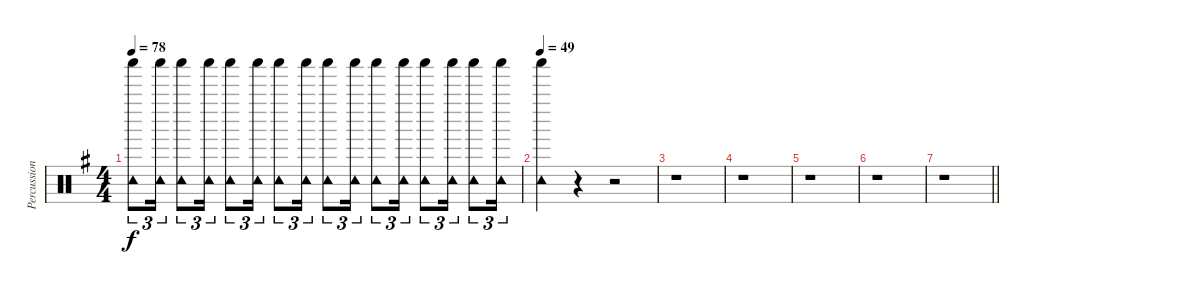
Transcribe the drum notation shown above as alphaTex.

\track ("Percussion" "Percussion") {instrument percussion}
\staff {score}
\articulation defaults
\ts (4 4)
\tempo 78
\clef neutral
\ks g
("Shaker (hit)" "Tambourine (hit)").8{tu (3 2) dy f} ("Shaker (hit)" "Tambourine (hit)").16{tu (3 2)} ("Shaker (hit)" "Tambourine (hit)").8{tu (3 2)} ("Shaker (hit)" "Tambourine (hit)").16{tu (3 2)} ("Shaker (hit)" "Tambourine (hit)").8{tu (3 2)} ("Shaker (hit)" "Tambourine (hit)").16{tu (3 2)} ("Shaker (hit)" "Tambourine (hit)").8{tu (3 2)} ("Shaker (hit)" "Tambourine (hit)").16{tu (3 2)} ("Shaker (hit)" "Tambourine (hit)").8{tu (3 2)} ("Shaker (hit)" "Tambourine (hit)").16{tu (3 2)} ("Shaker (hit)" "Tambourine (hit)").8{tu (3 2)} ("Shaker (hit)" "Tambourine (hit)").16{tu (3 2)} ("Shaker (hit)" "Tambourine (hit)").8{tu (3 2)} ("Shaker (hit)" "Tambourine (hit)").16{tu (3 2)} ("Shaker (hit)" "Tambourine (hit)").8{tu (3 2)} ("Shaker (hit)" "Tambourine (hit)").16{tu (3 2)} |
\tempo 49
("Shaker (hit)" "Tambourine (hit)").4 r.4 r.2 |
r.1 |
r.1 |
r.1 |
r.1 |
\barLineRight lightlight
r.1
